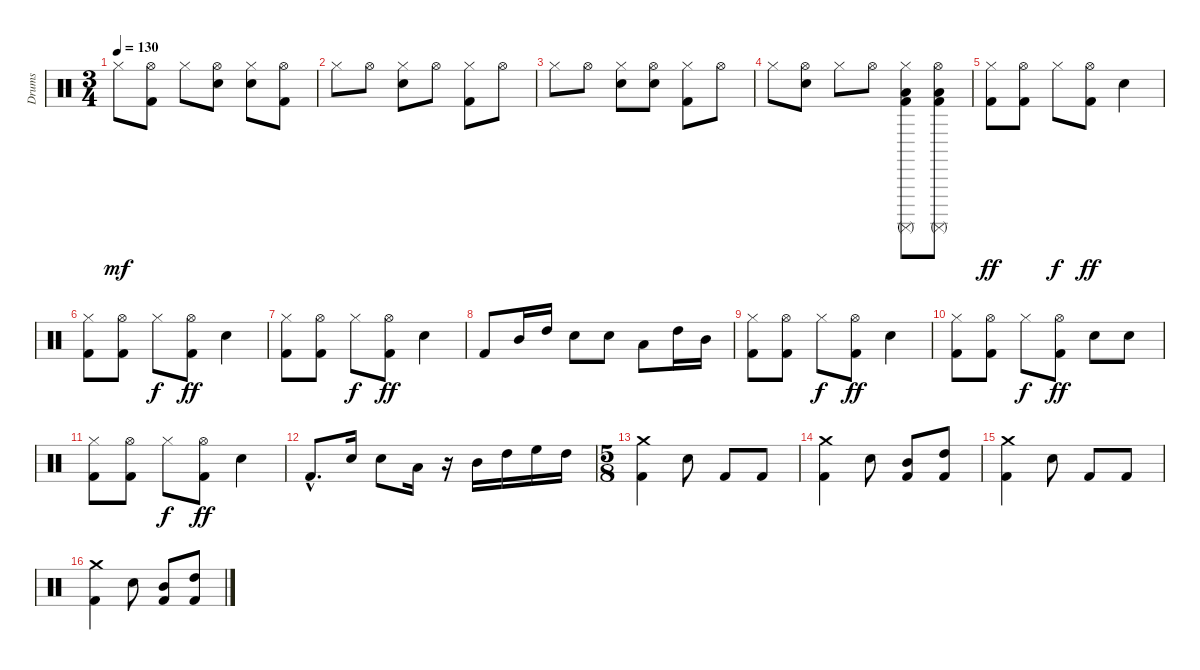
\track ("Drums" "Drums") {instrument percussion}
\staff {score}
\articulation defaults
\ts (3 4)
\tempo 130
\clef neutral
\ks c "Hi-Hat (closed)".8{dy mf}
("Kick (hit) 2" "Hi-Hat (open)").8 "Hi-Hat (closed)".8 ("Electric Snare (hit)" "Hi-Hat (open)").8 ("Electric Snare (hit)" "Hi-Hat (closed)").8 ("Kick (hit) 2" "Hi-Hat (open)").8 |
"Hi-Hat (closed)".8 "Hi-Hat (open)".8 ("Electric Snare (hit)" "Hi-Hat (closed)").8 "Hi-Hat (open)".8 ("Kick (hit) 2" "Hi-Hat (closed)").8 "Hi-Hat (open)".8 |
"Hi-Hat (closed)".8 "Hi-Hat (open)".8 ("Electric Snare (hit)" "Hi-Hat (closed)").8 ("Electric Snare (hit)" "Hi-Hat (open)").8 ("Kick (hit) 2" "Hi-Hat (closed)").8 "Hi-Hat (open)".8 |
"Hi-Hat (closed)".8 ("Electric Snare (hit)" "Hi-Hat (open)").8 "Hi-Hat (closed)".8 "Hi-Hat (open)".8 ("Surdo (mute)" "Kick (hit) 2" "Low Tom (hit)" "Hi-Hat (closed)").8 ("Surdo (mute)" "Kick (hit) 2" "Low Tom (hit)" "Hi-Hat (open)").8 |
("Kick (hit) 2" "Hi-Hat (closed)").8{dy ff} ("Kick (hit) 2" "Hi-Hat (open)").8 "Hi-Hat (closed)".8{dy f} ("Kick (hit) 2" "Hi-Hat (open)").8{dy ff} "Electric Snare (hit)".4 |
("Kick (hit) 2" "Hi-Hat (closed)").8 ("Kick (hit) 2" "Hi-Hat (open)").8 "Hi-Hat (closed)".8{dy f} ("Kick (hit) 2" "Hi-Hat (open)").8{dy ff} "Electric Snare (hit)".4 |
("Kick (hit) 2" "Hi-Hat (closed)").8 ("Kick (hit) 2" "Hi-Hat (open)").8 "Hi-Hat (closed)".8{dy f} ("Kick (hit) 2" "Hi-Hat (open)").8{dy ff} "Electric Snare (hit)".4 |
"Kick (hit) 2".8 "Mid Tom (hit)".16 "High Tom (hit)".16 "Electric Snare (hit)".8 "Electric Snare (hit)".8 "Low Tom (hit)".8 "High Tom (hit)".16 "Mid Tom (hit)".16 |
("Kick (hit) 2" "Hi-Hat (closed)").8 ("Kick (hit) 2" "Hi-Hat (open)").8 "Hi-Hat (closed)".8{dy f} ("Kick (hit) 2" "Hi-Hat (open)").8{dy ff} "Electric Snare (hit)".4 |
("Kick (hit) 2" "Hi-Hat (closed)").8 ("Kick (hit) 2" "Hi-Hat (open)").8 "Hi-Hat (closed)".8{dy f} ("Kick (hit) 2" "Hi-Hat (open)").8{dy ff} "Electric Snare (hit)".8 "Electric Snare (hit)".8 |
("Kick (hit) 2" "Hi-Hat (closed)").8 ("Kick (hit) 2" "Hi-Hat (open)").8 "Hi-Hat (closed)".8{dy f} ("Kick (hit) 2" "Hi-Hat (open)").8{dy ff} "Electric Snare (hit)".4 |
"Kick (hit) 2"{hac}.8{d} "Electric Snare (hit)".16 "Electric Snare (hit)".8 "Low Tom (hit)".16 r.16 "Mid Tom (hit)".16 "High Tom (hit)".16 "High Floor Tom (hit)".16 "High Tom (hit)".16 |
\ts (5 8)
("Kick (hit) 2" "Crash medium (hit)").4 "Electric Snare (hit)".8 "Kick (hit) 2".8 "Kick (hit) 2".8 |
("Kick (hit) 2" "Crash medium (hit)").4 "Electric Snare (hit)".8 ("Kick (hit) 2" "Mid Tom (hit)").8 ("Kick (hit) 2" "High Tom (hit)").8 |
("Kick (hit) 2" "Crash medium (hit)").4 "Electric Snare (hit)".8 "Kick (hit) 2".8 "Kick (hit) 2".8 |
("Kick (hit) 2" "Crash medium (hit)").4 "Electric Snare (hit)".8 ("Kick (hit) 2" "Mid Tom (hit)").8 ("Kick (hit) 2" "High Tom (hit)").8
